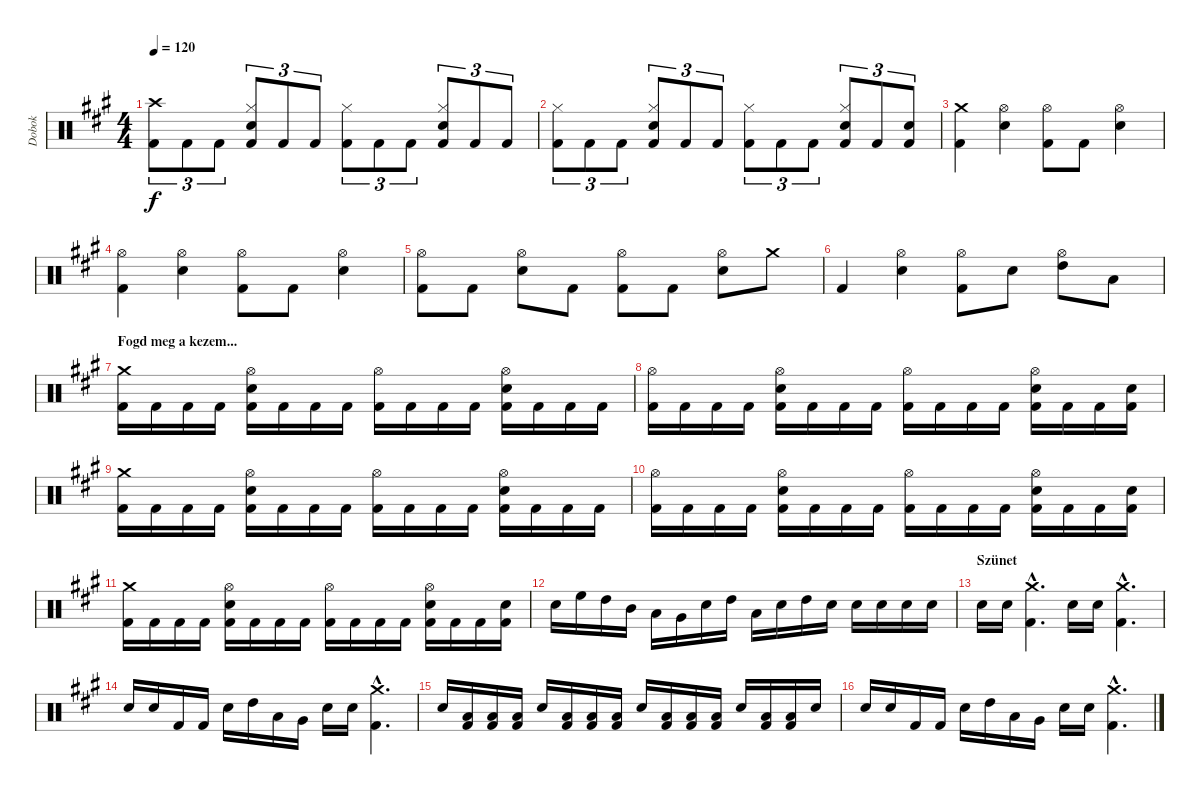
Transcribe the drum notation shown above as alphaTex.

\track ("Dobok" "Dobok") {instrument percussion}
\staff {score}
\articulation defaults
\ts (4 4)
\tempo 120
\clef neutral
\ks a
("Crash high (hit)" "Kick (hit) 2").8{tu (3 2) dy f} "Kick (hit) 2".8{tu (3 2)} "Kick (hit) 2".8{tu (3 2)} ("Hi-Hat (closed)" "Snare (hit) 2" "Kick (hit) 2").8{tu (3 2)} "Kick (hit) 2".8{tu (3 2)} "Kick (hit) 2".8{tu (3 2)} ("Hi-Hat (closed)" "Kick (hit) 2").8{tu (3 2)} "Kick (hit) 2".8{tu (3 2)} "Kick (hit) 2".8{tu (3 2)} ("Hi-Hat (closed)" "Snare (hit) 2" "Kick (hit) 2").8{tu (3 2)} "Kick (hit) 2".8{tu (3 2)} "Kick (hit) 2".8{tu (3 2)} |
("Hi-Hat (closed)" "Kick (hit) 2").8{tu (3 2)} "Kick (hit) 2".8{tu (3 2)} "Kick (hit) 2".8{tu (3 2)} ("Hi-Hat (closed)" "Snare (hit) 2" "Kick (hit) 2").8{tu (3 2)} "Kick (hit) 2".8{tu (3 2)} "Kick (hit) 2".8{tu (3 2)} ("Hi-Hat (closed)" "Kick (hit) 2").8{tu (3 2)} "Kick (hit) 2".8{tu (3 2)} "Kick (hit) 2".8{tu (3 2)} ("Hi-Hat (closed)" "Snare (hit) 2" "Kick (hit) 2").8{tu (3 2)} "Kick (hit) 2".8{tu (3 2)} ("Snare (hit) 2" "Kick (hit) 2").8{tu (3 2)} |
("Crash medium (hit)" "Kick (hit) 2").4 ("Hi-Hat (open)" "Snare (hit) 2").4 ("Hi-Hat (open)" "Kick (hit) 2").8 "Kick (hit) 2".8 ("Hi-Hat (open)" "Snare (hit) 2").4 |
("Hi-Hat (open)" "Kick (hit) 2").4 ("Hi-Hat (open)" "Snare (hit) 2").4 ("Hi-Hat (open)" "Kick (hit) 2").8 "Kick (hit) 2".8 ("Hi-Hat (open)" "Snare (hit) 2").4 |
("Hi-Hat (open)" "Kick (hit) 2").8 "Kick (hit) 2".8 ("Hi-Hat (open)" "Snare (hit) 2").8 "Kick (hit) 2".8 ("Hi-Hat (open)" "Kick (hit) 2").8 "Kick (hit) 2".8 ("Hi-Hat (open)" "Snare (hit) 2").8 "Crash medium (hit)".8 |
"Kick (hit) 2".4 ("Hi-Hat (open)" "Snare (hit) 2").4 ("Hi-Hat (open)" "Kick (hit) 2").8 "Snare (hit) 2".8 ("Hi-Hat (open)" "High Tom (hit)").8 "Low Tom (hit)".8 |
\section ("" "Fogd meg a kezem...")
("Crash medium (hit)" "Kick (hit) 2").16 "Kick (hit) 2".16 "Kick (hit) 2".16 "Kick (hit) 2".16 ("Hi-Hat (open)" "Snare (hit) 2" "Kick (hit) 2").16 "Kick (hit) 2".16 "Kick (hit) 2".16 "Kick (hit) 2".16 ("Hi-Hat (open)" "Kick (hit) 2").16 "Kick (hit) 2".16 "Kick (hit) 2".16 "Kick (hit) 2".16 ("Hi-Hat (open)" "Snare (hit) 2" "Kick (hit) 2").16 "Kick (hit) 2".16 "Kick (hit) 2".16 "Kick (hit) 2".16 |
("Hi-Hat (open)" "Kick (hit) 2").16 "Kick (hit) 2".16 "Kick (hit) 2".16 "Kick (hit) 2".16 ("Hi-Hat (open)" "Snare (hit) 2" "Kick (hit) 2").16 "Kick (hit) 2".16 "Kick (hit) 2".16 "Kick (hit) 2".16 ("Hi-Hat (open)" "Kick (hit) 2").16 "Kick (hit) 2".16 "Kick (hit) 2".16 "Kick (hit) 2".16 ("Hi-Hat (open)" "Snare (hit) 2" "Kick (hit) 2").16 "Kick (hit) 2".16 "Kick (hit) 2".16 ("Snare (hit) 2" "Kick (hit) 2").16 |
("Crash medium (hit)" "Kick (hit) 2").16 "Kick (hit) 2".16 "Kick (hit) 2".16 "Kick (hit) 2".16 ("Hi-Hat (open)" "Snare (hit) 2" "Kick (hit) 2").16 "Kick (hit) 2".16 "Kick (hit) 2".16 "Kick (hit) 2".16 ("Hi-Hat (open)" "Kick (hit) 2").16 "Kick (hit) 2".16 "Kick (hit) 2".16 "Kick (hit) 2".16 ("Hi-Hat (open)" "Snare (hit) 2" "Kick (hit) 2").16 "Kick (hit) 2".16 "Kick (hit) 2".16 "Kick (hit) 2".16 |
("Hi-Hat (open)" "Kick (hit) 2").16 "Kick (hit) 2".16 "Kick (hit) 2".16 "Kick (hit) 2".16 ("Hi-Hat (open)" "Snare (hit) 2" "Kick (hit) 2").16 "Kick (hit) 2".16 "Kick (hit) 2".16 "Kick (hit) 2".16 ("Hi-Hat (open)" "Kick (hit) 2").16 "Kick (hit) 2".16 "Kick (hit) 2".16 "Kick (hit) 2".16 ("Hi-Hat (open)" "Snare (hit) 2" "Kick (hit) 2").16 "Kick (hit) 2".16 "Kick (hit) 2".16 ("Snare (hit) 2" "Kick (hit) 2").16 |
("Crash medium (hit)" "Kick (hit) 2").16 "Kick (hit) 2".16 "Kick (hit) 2".16 "Kick (hit) 2".16 ("Hi-Hat (open)" "Snare (hit) 2" "Kick (hit) 2").16 "Kick (hit) 2".16 "Kick (hit) 2".16 "Kick (hit) 2".16 ("Hi-Hat (open)" "Kick (hit) 2").16 "Kick (hit) 2".16 "Kick (hit) 2".16 "Kick (hit) 2".16 ("Hi-Hat (open)" "Snare (hit) 2" "Kick (hit) 2").16 "Kick (hit) 2".16 "Kick (hit) 2".16 ("Snare (hit) 2" "Kick (hit) 2").16 |
"Snare (hit) 2".16 "High Floor Tom (hit)".16 "High Tom (hit)".16 "Mid Tom (hit)".16 "Low Tom (hit)".16 "Very Low Tom (hit)".16 "Snare (hit) 2".16 "High Tom (hit)".16 "Low Tom (hit)".16 "Snare (hit) 2".16 "High Tom (hit)".16 "Snare (hit) 2".16 "Snare (hit) 2".16 "Snare (hit) 2".16 "Snare (hit) 2".16 "Snare (hit) 2".16 |
\section ("" "Szünet")
"Snare (hit) 2".16 "Snare (hit) 2".16 ("Crash medium (hit)"{hac} "Kick (hit) 2"{hac}).4{d} "Snare (hit) 2".16 "Snare (hit) 2".16 ("Crash medium (hit)"{hac} "Kick (hit) 2"{hac}).4{d} |
"Snare (hit) 2".16 "Snare (hit) 2".16 "Kick (hit) 2".16 "Kick (hit) 2".16 "Snare (hit) 2".16 "High Tom (hit)".16 "Low Tom (hit)".16 "Very Low Tom (hit)".16 "Snare (hit) 2".16 "Snare (hit) 2".16 ("Crash medium (hit)"{hac} "Kick (hit) 2"{hac}).4{d} |
"Snare (hit) 2".16 ("Low Floor Tom (hit)" "Kick (hit) 2").16 ("Low Floor Tom (hit)" "Kick (hit) 2").16 ("Low Floor Tom (hit)" "Kick (hit) 2").16 "Snare (hit) 2".16 ("Low Floor Tom (hit)" "Kick (hit) 2").16 ("Low Floor Tom (hit)" "Kick (hit) 2").16 ("Low Floor Tom (hit)" "Kick (hit) 2").16 "Snare (hit) 2".16 ("Low Floor Tom (hit)" "Kick (hit) 2").16 ("Low Floor Tom (hit)" "Kick (hit) 2").16 ("Low Floor Tom (hit)" "Kick (hit) 2").16 "Snare (hit) 2".16 ("Low Floor Tom (hit)" "Kick (hit) 2").16 ("Low Floor Tom (hit)" "Kick (hit) 2").16 "Snare (hit) 2".16 |
"Snare (hit) 2".16 "Snare (hit) 2".16 "Kick (hit) 2".16 "Kick (hit) 2".16 "Snare (hit) 2".16 "High Tom (hit)".16 "Low Tom (hit)".16 "Very Low Tom (hit)".16 "Snare (hit) 2".16 "Snare (hit) 2".16 ("Crash medium (hit)"{hac} "Kick (hit) 2"{hac}).4{d}
